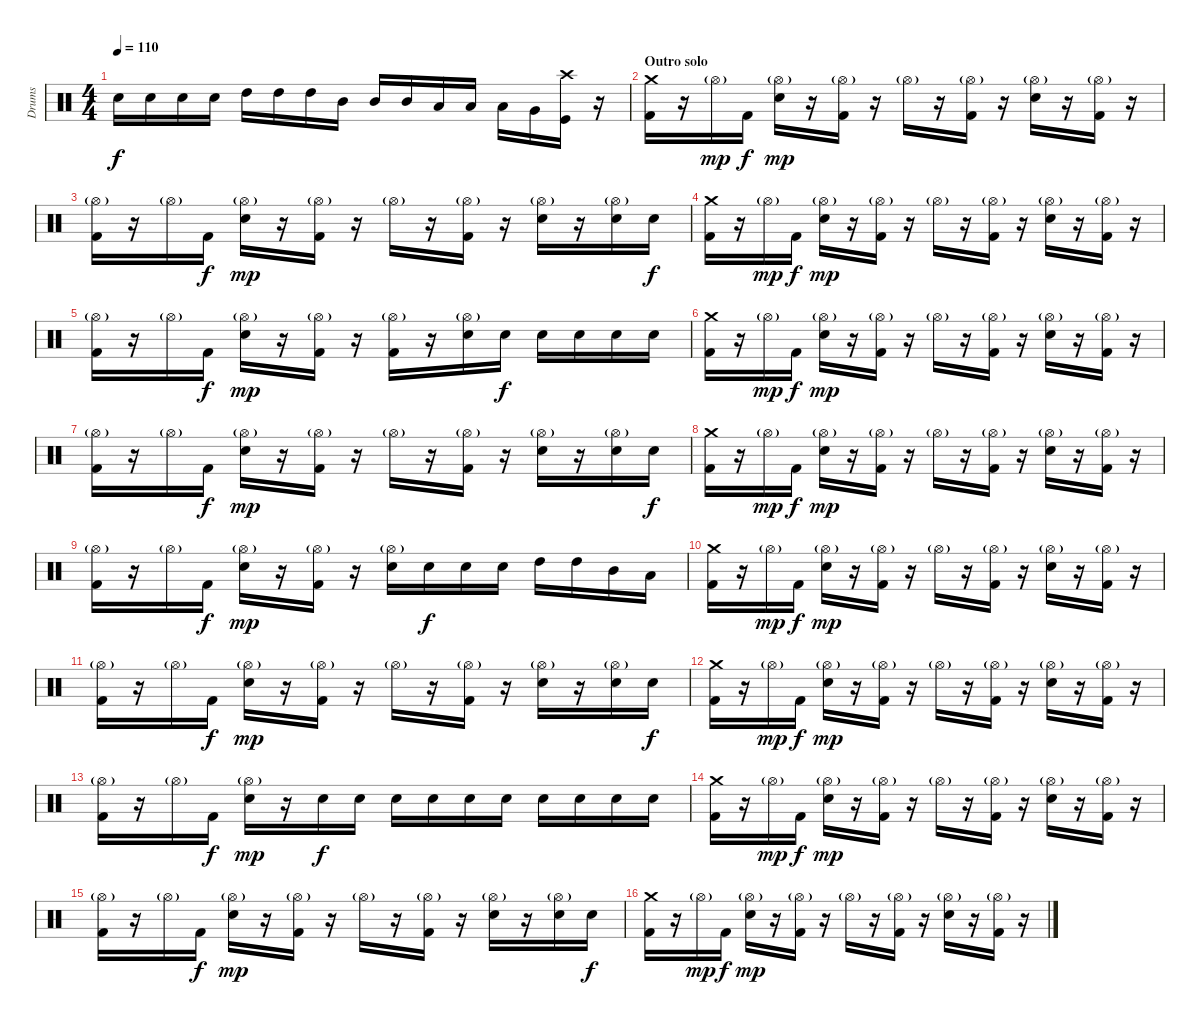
\track ("Drums" "Drums") {instrument percussion}
\staff {score}
\articulation defaults
\ts (4 4)
\tempo 110
\clef neutral
\ks c "Electric Snare (hit)".16{dy f} "Electric Snare (hit)".16 "Electric Snare (hit)".16 "Electric Snare (hit)".16 "High Tom (hit)".16 "High Tom (hit)".16 "High Tom (hit)".16 "Mid Tom (hit)".16 "Mid Tom (hit)".16 "Mid Tom (hit)".16 "Low Tom (hit)".16 "Low Tom (hit)".16 "Low Tom (hit)".16 "Very Low Tom (hit)".16
("Crash high (hit)" "Kick (hit)").16 r.16 |
\section ("" "Outro solo")
("Crash medium (hit)" "Kick (hit) 2").16 r.16 "Hi-Hat (open)"{g}.16{dy mp} "Kick (hit) 2".16{dy f} ("Hi-Hat (open)"{g} "Electric Snare (hit)").16{dy mp} r.16 ("Hi-Hat (open)"{g} "Kick (hit) 2").16 r.16 "Hi-Hat (open)"{g}.16 r.16 ("Hi-Hat (open)"{g} "Kick (hit) 2").16 r.16 ("Hi-Hat (open)"{g} "Electric Snare (hit)").16 r.16 ("Hi-Hat (open)"{g} "Kick (hit) 2").16 r.16 |
("Hi-Hat (open)"{g} "Kick (hit) 2").16 r.16 "Hi-Hat (open)"{g}.16 "Kick (hit) 2".16{dy f} ("Hi-Hat (open)"{g} "Electric Snare (hit)").16{dy mp} r.16 ("Hi-Hat (open)"{g} "Kick (hit) 2").16 r.16 "Hi-Hat (open)"{g}.16 r.16 ("Hi-Hat (open)"{g} "Kick (hit) 2").16 r.16 ("Hi-Hat (open)"{g} "Electric Snare (hit)").16 r.16 ("Hi-Hat (open)"{g} "Electric Snare (hit)").16 "Electric Snare (hit)".16{dy f} |
("Crash medium (hit)" "Kick (hit) 2").16 r.16 "Hi-Hat (open)"{g}.16{dy mp} "Kick (hit) 2".16{dy f} ("Hi-Hat (open)"{g} "Electric Snare (hit)").16{dy mp} r.16 ("Hi-Hat (open)"{g} "Kick (hit) 2").16 r.16 "Hi-Hat (open)"{g}.16 r.16 ("Hi-Hat (open)"{g} "Kick (hit) 2").16 r.16 ("Hi-Hat (open)"{g} "Electric Snare (hit)").16 r.16 ("Hi-Hat (open)"{g} "Kick (hit) 2").16 r.16 |
("Hi-Hat (open)"{g} "Kick (hit) 2").16 r.16 "Hi-Hat (open)"{g}.16 "Kick (hit) 2".16{dy f} ("Hi-Hat (open)"{g} "Electric Snare (hit)").16{dy mp} r.16 ("Hi-Hat (open)"{g} "Kick (hit) 2").16 r.16 ("Hi-Hat (open)"{g} "Kick (hit) 2").16 r.16 ("Hi-Hat (open)"{g} "Electric Snare (hit)").16 "Electric Snare (hit)".16{dy f} "Electric Snare (hit)".16 "Electric Snare (hit)".16 "Electric Snare (hit)".16 "Electric Snare (hit)".16 |
("Crash medium (hit)" "Kick (hit) 2").16 r.16 "Hi-Hat (open)"{g}.16{dy mp} "Kick (hit) 2".16{dy f} ("Hi-Hat (open)"{g} "Electric Snare (hit)").16{dy mp} r.16 ("Hi-Hat (open)"{g} "Kick (hit) 2").16 r.16 "Hi-Hat (open)"{g}.16 r.16 ("Hi-Hat (open)"{g} "Kick (hit) 2").16 r.16 ("Hi-Hat (open)"{g} "Electric Snare (hit)").16 r.16 ("Hi-Hat (open)"{g} "Kick (hit) 2").16 r.16 |
("Hi-Hat (open)"{g} "Kick (hit) 2").16 r.16 "Hi-Hat (open)"{g}.16 "Kick (hit) 2".16{dy f} ("Hi-Hat (open)"{g} "Electric Snare (hit)").16{dy mp} r.16 ("Hi-Hat (open)"{g} "Kick (hit) 2").16 r.16 "Hi-Hat (open)"{g}.16 r.16 ("Hi-Hat (open)"{g} "Kick (hit) 2").16 r.16 ("Hi-Hat (open)"{g} "Electric Snare (hit)").16 r.16 ("Hi-Hat (open)"{g} "Electric Snare (hit)").16 "Electric Snare (hit)".16{dy f} |
("Crash medium (hit)" "Kick (hit) 2").16 r.16 "Hi-Hat (open)"{g}.16{dy mp} "Kick (hit) 2".16{dy f} ("Hi-Hat (open)"{g} "Electric Snare (hit)").16{dy mp} r.16 ("Hi-Hat (open)"{g} "Kick (hit) 2").16 r.16 "Hi-Hat (open)"{g}.16 r.16 ("Hi-Hat (open)"{g} "Kick (hit) 2").16 r.16 ("Hi-Hat (open)"{g} "Electric Snare (hit)").16 r.16 ("Hi-Hat (open)"{g} "Kick (hit) 2").16 r.16 |
("Hi-Hat (open)"{g} "Kick (hit) 2").16 r.16 "Hi-Hat (open)"{g}.16 "Kick (hit) 2".16{dy f} ("Hi-Hat (open)"{g} "Electric Snare (hit)").16{dy mp} r.16 ("Hi-Hat (open)"{g} "Kick (hit) 2").16 r.16 ("Hi-Hat (open)"{g} "Electric Snare (hit)").16 "Electric Snare (hit)".16{dy f} "Electric Snare (hit)".16 "Electric Snare (hit)".16 "High Tom (hit)".16 "High Tom (hit)".16 "Mid Tom (hit)".16 "Low Tom (hit)".16 |
("Crash medium (hit)" "Kick (hit) 2").16 r.16 "Hi-Hat (open)"{g}.16{dy mp} "Kick (hit) 2".16{dy f} ("Hi-Hat (open)"{g} "Electric Snare (hit)").16{dy mp} r.16 ("Hi-Hat (open)"{g} "Kick (hit) 2").16 r.16 "Hi-Hat (open)"{g}.16 r.16 ("Hi-Hat (open)"{g} "Kick (hit) 2").16 r.16 ("Hi-Hat (open)"{g} "Electric Snare (hit)").16 r.16 ("Hi-Hat (open)"{g} "Kick (hit) 2").16 r.16 |
("Hi-Hat (open)"{g} "Kick (hit) 2").16 r.16 "Hi-Hat (open)"{g}.16 "Kick (hit) 2".16{dy f} ("Hi-Hat (open)"{g} "Electric Snare (hit)").16{dy mp} r.16 ("Hi-Hat (open)"{g} "Kick (hit) 2").16 r.16 "Hi-Hat (open)"{g}.16 r.16 ("Hi-Hat (open)"{g} "Kick (hit) 2").16 r.16 ("Hi-Hat (open)"{g} "Electric Snare (hit)").16 r.16 ("Hi-Hat (open)"{g} "Electric Snare (hit)").16 "Electric Snare (hit)".16{dy f} |
("Crash medium (hit)" "Kick (hit) 2").16 r.16 "Hi-Hat (open)"{g}.16{dy mp} "Kick (hit) 2".16{dy f} ("Hi-Hat (open)"{g} "Electric Snare (hit)").16{dy mp} r.16 ("Hi-Hat (open)"{g} "Kick (hit) 2").16 r.16 "Hi-Hat (open)"{g}.16 r.16 ("Hi-Hat (open)"{g} "Kick (hit) 2").16 r.16 ("Hi-Hat (open)"{g} "Electric Snare (hit)").16 r.16 ("Hi-Hat (open)"{g} "Kick (hit) 2").16 r.16 |
("Hi-Hat (open)"{g} "Kick (hit) 2").16 r.16 "Hi-Hat (open)"{g}.16 "Kick (hit) 2".16{dy f} ("Hi-Hat (open)"{g} "Electric Snare (hit)").16{dy mp} r.16 "Electric Snare (hit)".16{dy f} "Electric Snare (hit)".16 "Electric Snare (hit)".16 "Electric Snare (hit)".16 "Electric Snare (hit)".16 "Electric Snare (hit)".16 "Electric Snare (hit)".16 "Electric Snare (hit)".16 "Electric Snare (hit)".16 "Electric Snare (hit)".16 |
("Crash medium (hit)" "Kick (hit) 2").16 r.16 "Hi-Hat (open)"{g}.16{dy mp} "Kick (hit) 2".16{dy f} ("Hi-Hat (open)"{g} "Electric Snare (hit)").16{dy mp} r.16 ("Hi-Hat (open)"{g} "Kick (hit) 2").16 r.16 "Hi-Hat (open)"{g}.16 r.16 ("Hi-Hat (open)"{g} "Kick (hit) 2").16 r.16 ("Hi-Hat (open)"{g} "Electric Snare (hit)").16 r.16 ("Hi-Hat (open)"{g} "Kick (hit) 2").16 r.16 |
("Hi-Hat (open)"{g} "Kick (hit) 2").16 r.16 "Hi-Hat (open)"{g}.16 "Kick (hit) 2".16{dy f} ("Hi-Hat (open)"{g} "Electric Snare (hit)").16{dy mp} r.16 ("Hi-Hat (open)"{g} "Kick (hit) 2").16 r.16 "Hi-Hat (open)"{g}.16 r.16 ("Hi-Hat (open)"{g} "Kick (hit) 2").16 r.16 ("Hi-Hat (open)"{g} "Electric Snare (hit)").16 r.16 ("Hi-Hat (open)"{g} "Electric Snare (hit)").16 "Electric Snare (hit)".16{dy f} |
("Crash medium (hit)" "Kick (hit) 2").16 r.16 "Hi-Hat (open)"{g}.16{dy mp} "Kick (hit) 2".16{dy f} ("Hi-Hat (open)"{g} "Electric Snare (hit)").16{dy mp} r.16 ("Hi-Hat (open)"{g} "Kick (hit) 2").16 r.16 "Hi-Hat (open)"{g}.16 r.16 ("Hi-Hat (open)"{g} "Kick (hit) 2").16 r.16 ("Hi-Hat (open)"{g} "Electric Snare (hit)").16 r.16 ("Hi-Hat (open)"{g} "Kick (hit) 2").16 r.16
